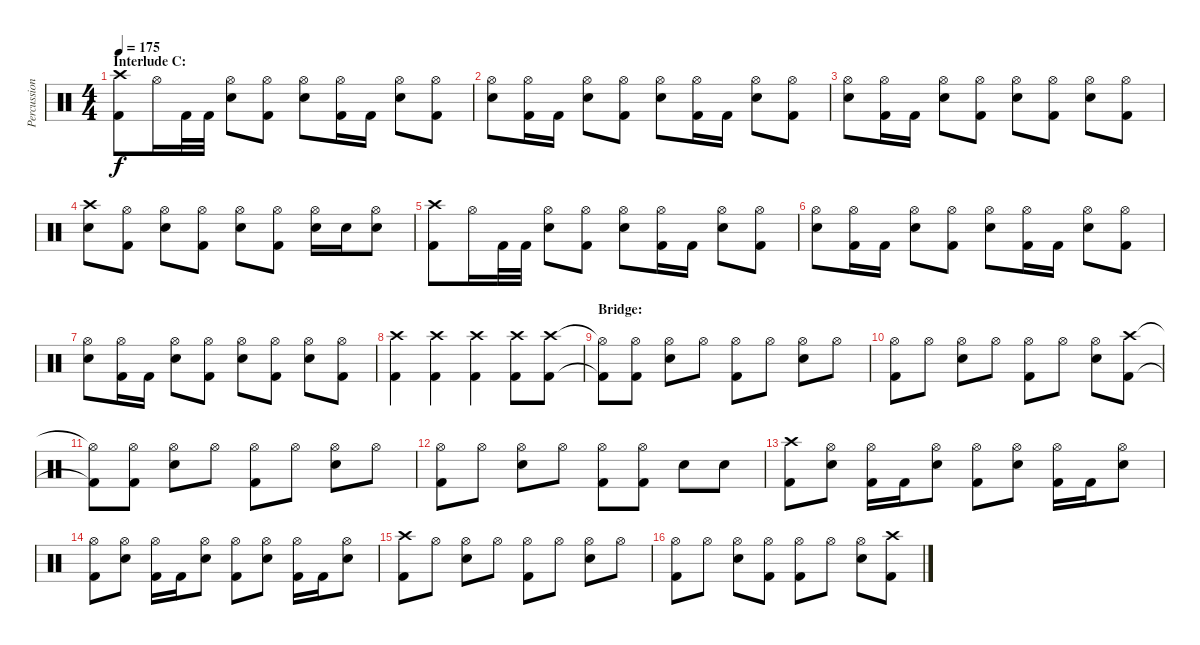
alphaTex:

\track ("Percussion" "Percussion") {instrument percussion}
\staff {score}
\articulation defaults
\ts (4 4)
\section ("" "Interlude C:")
\tempo 175
\clef neutral
\ks c
("Crash high (hit)" "Kick (hit) 2").8{dy f} "Hi-Hat (open)".16 "Kick (hit) 2".32 "Kick (hit) 2".32 ("Hi-Hat (open)" "Electric Snare (hit)").8 ("Hi-Hat (open)" "Kick (hit) 2").8 ("Hi-Hat (open)" "Electric Snare (hit)").8 ("Hi-Hat (open)" "Kick (hit) 2").16 "Kick (hit) 2".16 ("Hi-Hat (open)" "Electric Snare (hit)").8 ("Hi-Hat (open)" "Kick (hit) 2").8 |
("Hi-Hat (open)" "Electric Snare (hit)").8 ("Hi-Hat (open)" "Kick (hit) 2").16 "Kick (hit) 2".16 ("Hi-Hat (open)" "Electric Snare (hit)").8 ("Hi-Hat (open)" "Kick (hit) 2").8 ("Hi-Hat (open)" "Electric Snare (hit)").8 ("Hi-Hat (open)" "Kick (hit) 2").16 "Kick (hit) 2".16 ("Hi-Hat (open)" "Electric Snare (hit)").8 ("Hi-Hat (open)" "Kick (hit) 2").8 |
("Hi-Hat (open)" "Electric Snare (hit)").8 ("Hi-Hat (open)" "Kick (hit) 2").16 "Kick (hit) 2".16 ("Hi-Hat (open)" "Electric Snare (hit)").8 ("Hi-Hat (open)" "Kick (hit) 2").8 ("Hi-Hat (open)" "Electric Snare (hit)").8 ("Hi-Hat (open)" "Kick (hit) 2").8 ("Hi-Hat (open)" "Electric Snare (hit)").8 ("Hi-Hat (open)" "Kick (hit) 2").8 |
("Crash high (hit)" "Electric Snare (hit)").8 ("Hi-Hat (open)" "Kick (hit) 2").8 ("Hi-Hat (open)" "Electric Snare (hit)").8 ("Hi-Hat (open)" "Kick (hit) 2").8 ("Hi-Hat (open)" "Electric Snare (hit)").8 ("Hi-Hat (open)" "Kick (hit) 2").8 ("Hi-Hat (open)" "Electric Snare (hit)").16 "Electric Snare (hit)".16 ("Hi-Hat (open)" "Electric Snare (hit)").8 |
("Crash high (hit)" "Kick (hit) 2").8 "Hi-Hat (open)".16 "Kick (hit) 2".32 "Kick (hit) 2".32 ("Hi-Hat (open)" "Electric Snare (hit)").8 ("Hi-Hat (open)" "Kick (hit) 2").8 ("Hi-Hat (open)" "Electric Snare (hit)").8 ("Hi-Hat (open)" "Kick (hit) 2").16 "Kick (hit) 2".16 ("Hi-Hat (open)" "Electric Snare (hit)").8 ("Hi-Hat (open)" "Kick (hit) 2").8 |
("Hi-Hat (open)" "Electric Snare (hit)").8 ("Hi-Hat (open)" "Kick (hit) 2").16 "Kick (hit) 2".16 ("Hi-Hat (open)" "Electric Snare (hit)").8 ("Hi-Hat (open)" "Kick (hit) 2").8 ("Hi-Hat (open)" "Electric Snare (hit)").8 ("Hi-Hat (open)" "Kick (hit) 2").16 "Kick (hit) 2".16 ("Hi-Hat (open)" "Electric Snare (hit)").8 ("Hi-Hat (open)" "Kick (hit) 2").8 |
("Hi-Hat (open)" "Electric Snare (hit)").8 ("Hi-Hat (open)" "Kick (hit) 2").16 "Kick (hit) 2".16 ("Hi-Hat (open)" "Electric Snare (hit)").8 ("Hi-Hat (open)" "Kick (hit) 2").8 ("Hi-Hat (open)" "Electric Snare (hit)").8 ("Hi-Hat (open)" "Kick (hit) 2").8 ("Hi-Hat (open)" "Electric Snare (hit)").8 ("Hi-Hat (open)" "Kick (hit) 2").8 |
("Crash high (hit)" "Kick (hit) 2").4 ("Crash high (hit)" "Kick (hit) 2").4 ("Crash high (hit)" "Kick (hit) 2").4 ("Crash high (hit)" "Kick (hit) 2").8 ("Crash high (hit)" "Kick (hit) 2").8 |
\section ("" "Bridge:")
("Hi-Hat (open)"{t} "Kick (hit) 2"{t}).8 ("Hi-Hat (open)" "Kick (hit) 2").8 ("Hi-Hat (open)" "Electric Snare (hit)").8 "Hi-Hat (open)".8 ("Hi-Hat (open)" "Kick (hit) 2").8 "Hi-Hat (open)".8 ("Hi-Hat (open)" "Electric Snare (hit)").8 "Hi-Hat (open)".8 |
("Hi-Hat (open)" "Kick (hit) 2").8 "Hi-Hat (open)".8 ("Hi-Hat (open)" "Electric Snare (hit)").8 "Hi-Hat (open)".8 ("Hi-Hat (open)" "Kick (hit) 2").8 "Hi-Hat (open)".8 ("Hi-Hat (open)" "Electric Snare (hit)").8 ("Crash high (hit)" "Kick (hit) 2").8 |
("Hi-Hat (open)"{t} "Kick (hit) 2"{t}).8 ("Hi-Hat (open)" "Kick (hit) 2").8 ("Hi-Hat (open)" "Electric Snare (hit)").8 "Hi-Hat (open)".8 ("Hi-Hat (open)" "Kick (hit) 2").8 "Hi-Hat (open)".8 ("Hi-Hat (open)" "Electric Snare (hit)").8 "Hi-Hat (open)".8 |
("Hi-Hat (open)" "Kick (hit) 2").8 "Hi-Hat (open)".8 ("Hi-Hat (open)" "Electric Snare (hit)").8 "Hi-Hat (open)".8 ("Hi-Hat (open)" "Kick (hit) 2").8 ("Hi-Hat (open)" "Kick (hit) 2").8 "Electric Snare (hit)".8 "Electric Snare (hit)".8 |
("Crash high (hit)" "Kick (hit) 2").8 ("Hi-Hat (open)" "Electric Snare (hit)").8 ("Hi-Hat (open)" "Kick (hit) 2").16 "Kick (hit) 2".16 ("Hi-Hat (open)" "Electric Snare (hit)").8 ("Hi-Hat (open)" "Kick (hit) 2").8 ("Hi-Hat (open)" "Electric Snare (hit)").8 ("Hi-Hat (open)" "Kick (hit) 2").16 "Kick (hit) 2".16 ("Hi-Hat (open)" "Electric Snare (hit)").8 |
("Hi-Hat (open)" "Kick (hit) 2").8 ("Hi-Hat (open)" "Electric Snare (hit)").8 ("Hi-Hat (open)" "Kick (hit) 2").16 "Kick (hit) 2".16 ("Hi-Hat (open)" "Electric Snare (hit)").8 ("Hi-Hat (open)" "Kick (hit) 2").8 ("Hi-Hat (open)" "Electric Snare (hit)").8 ("Hi-Hat (open)" "Kick (hit) 2").16 "Kick (hit) 2".16 ("Hi-Hat (open)" "Electric Snare (hit)").8 |
("Crash high (hit)" "Kick (hit) 2").8 "Hi-Hat (open)".8 ("Hi-Hat (open)" "Electric Snare (hit)").8 "Hi-Hat (open)".8 ("Hi-Hat (open)" "Kick (hit) 2").8 "Hi-Hat (open)".8 ("Hi-Hat (open)" "Electric Snare (hit)").8 "Hi-Hat (open)".8 |
("Hi-Hat (open)" "Kick (hit) 2").8 "Hi-Hat (open)".8 ("Hi-Hat (open)" "Electric Snare (hit)").8 ("Hi-Hat (open)" "Kick (hit) 2").8 ("Hi-Hat (open)" "Kick (hit) 2").8 "Hi-Hat (open)".8 ("Hi-Hat (open)" "Electric Snare (hit)").8 ("Crash high (hit)" "Kick (hit) 2").8
